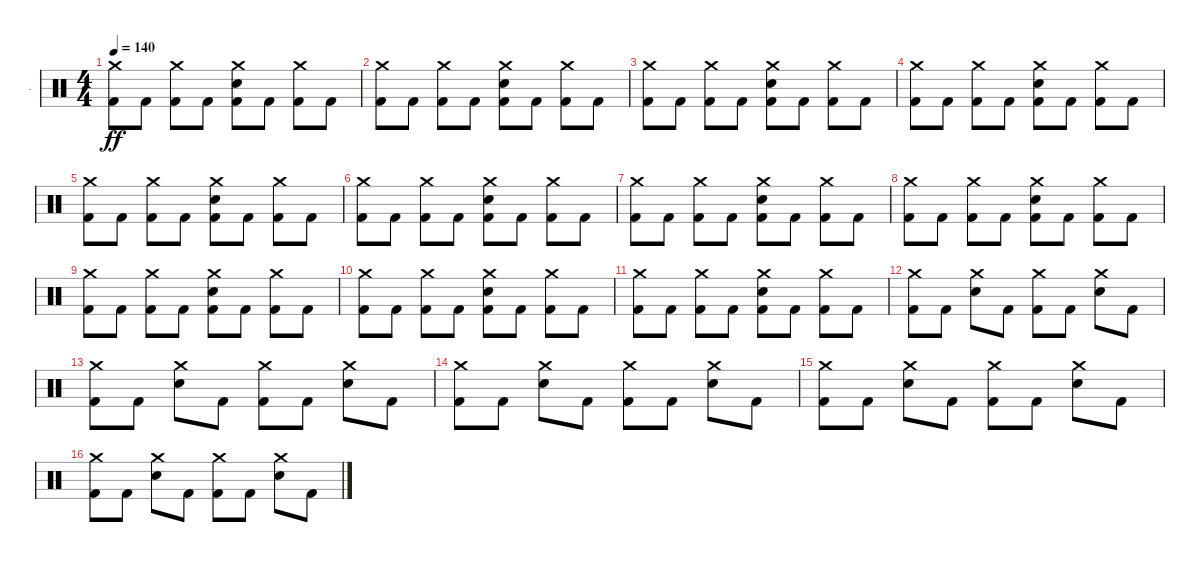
\track ("." ".") {instrument percussion}
\staff {score}
\articulation defaults
\ts (4 4)
\tempo 140
\clef neutral
\ks c
("Crash medium (hit)" "Kick (hit) 2").8{dy ff} "Kick (hit) 2".8 ("Crash medium (hit)" "Kick (hit) 2").8 "Kick (hit) 2".8 ("Crash medium (hit)" "Electric Snare (hit)" "Kick (hit) 2").8 "Kick (hit) 2".8 ("Crash medium (hit)" "Kick (hit) 2").8 "Kick (hit) 2".8 |
("Crash medium (hit)" "Kick (hit) 2").8 "Kick (hit) 2".8 ("Crash medium (hit)" "Kick (hit) 2").8 "Kick (hit) 2".8 ("Crash medium (hit)" "Electric Snare (hit)" "Kick (hit) 2").8 "Kick (hit) 2".8 ("Crash medium (hit)" "Kick (hit) 2").8 "Kick (hit) 2".8 |
("Crash medium (hit)" "Kick (hit) 2").8 "Kick (hit) 2".8 ("Crash medium (hit)" "Kick (hit) 2").8 "Kick (hit) 2".8 ("Crash medium (hit)" "Electric Snare (hit)" "Kick (hit) 2").8 "Kick (hit) 2".8 ("Crash medium (hit)" "Kick (hit) 2").8 "Kick (hit) 2".8 |
("Crash medium (hit)" "Kick (hit) 2").8 "Kick (hit) 2".8 ("Crash medium (hit)" "Kick (hit) 2").8 "Kick (hit) 2".8 ("Crash medium (hit)" "Electric Snare (hit)" "Kick (hit) 2").8 "Kick (hit) 2".8 ("Crash medium (hit)" "Kick (hit) 2").8 "Kick (hit) 2".8 |
("Crash medium (hit)" "Kick (hit) 2").8 "Kick (hit) 2".8 ("Crash medium (hit)" "Kick (hit) 2").8 "Kick (hit) 2".8 ("Crash medium (hit)" "Electric Snare (hit)" "Kick (hit) 2").8 "Kick (hit) 2".8 ("Crash medium (hit)" "Kick (hit) 2").8 "Kick (hit) 2".8 |
("Crash medium (hit)" "Kick (hit) 2").8 "Kick (hit) 2".8 ("Crash medium (hit)" "Kick (hit) 2").8 "Kick (hit) 2".8 ("Crash medium (hit)" "Electric Snare (hit)" "Kick (hit) 2").8 "Kick (hit) 2".8 ("Crash medium (hit)" "Kick (hit) 2").8 "Kick (hit) 2".8 |
("Crash medium (hit)" "Kick (hit) 2").8 "Kick (hit) 2".8 ("Crash medium (hit)" "Kick (hit) 2").8 "Kick (hit) 2".8 ("Crash medium (hit)" "Electric Snare (hit)" "Kick (hit) 2").8 "Kick (hit) 2".8 ("Crash medium (hit)" "Kick (hit) 2").8 "Kick (hit) 2".8 |
("Crash medium (hit)" "Kick (hit) 2").8 "Kick (hit) 2".8 ("Crash medium (hit)" "Kick (hit) 2").8 "Kick (hit) 2".8 ("Crash medium (hit)" "Electric Snare (hit)" "Kick (hit) 2").8 "Kick (hit) 2".8 ("Crash medium (hit)" "Kick (hit) 2").8 "Kick (hit) 2".8 |
("Crash medium (hit)" "Kick (hit) 2").8 "Kick (hit) 2".8 ("Crash medium (hit)" "Kick (hit) 2").8 "Kick (hit) 2".8 ("Crash medium (hit)" "Electric Snare (hit)" "Kick (hit) 2").8 "Kick (hit) 2".8 ("Crash medium (hit)" "Kick (hit) 2").8 "Kick (hit) 2".8 |
("Crash medium (hit)" "Kick (hit) 2").8 "Kick (hit) 2".8 ("Crash medium (hit)" "Kick (hit) 2").8 "Kick (hit) 2".8 ("Crash medium (hit)" "Electric Snare (hit)" "Kick (hit) 2").8 "Kick (hit) 2".8 ("Crash medium (hit)" "Kick (hit) 2").8 "Kick (hit) 2".8 |
("Crash medium (hit)" "Kick (hit) 2").8 "Kick (hit) 2".8 ("Crash medium (hit)" "Kick (hit) 2").8 "Kick (hit) 2".8 ("Crash medium (hit)" "Electric Snare (hit)" "Kick (hit) 2").8 "Kick (hit) 2".8 ("Crash medium (hit)" "Kick (hit) 2").8 "Kick (hit) 2".8 |
("Crash medium (hit)" "Kick (hit) 2").8 "Kick (hit) 2".8 ("Crash medium (hit)" "Electric Snare (hit)").8 "Kick (hit) 2".8 ("Crash medium (hit)" "Kick (hit) 2").8 "Kick (hit) 2".8 ("Crash medium (hit)" "Electric Snare (hit)").8 "Kick (hit) 2".8 |
("Crash medium (hit)" "Kick (hit) 2").8 "Kick (hit) 2".8 ("Crash medium (hit)" "Electric Snare (hit)").8 "Kick (hit) 2".8 ("Crash medium (hit)" "Kick (hit) 2").8 "Kick (hit) 2".8 ("Crash medium (hit)" "Electric Snare (hit)").8 "Kick (hit) 2".8 |
("Crash medium (hit)" "Kick (hit) 2").8 "Kick (hit) 2".8 ("Crash medium (hit)" "Electric Snare (hit)").8 "Kick (hit) 2".8 ("Crash medium (hit)" "Kick (hit) 2").8 "Kick (hit) 2".8 ("Crash medium (hit)" "Electric Snare (hit)").8 "Kick (hit) 2".8 |
("Crash medium (hit)" "Kick (hit) 2").8 "Kick (hit) 2".8 ("Crash medium (hit)" "Electric Snare (hit)").8 "Kick (hit) 2".8 ("Crash medium (hit)" "Kick (hit) 2").8 "Kick (hit) 2".8 ("Crash medium (hit)" "Electric Snare (hit)").8 "Kick (hit) 2".8 |
("Crash medium (hit)" "Kick (hit) 2").8 "Kick (hit) 2".8 ("Crash medium (hit)" "Electric Snare (hit)").8 "Kick (hit) 2".8 ("Crash medium (hit)" "Kick (hit) 2").8 "Kick (hit) 2".8 ("Crash medium (hit)" "Electric Snare (hit)").8 "Kick (hit) 2".8
